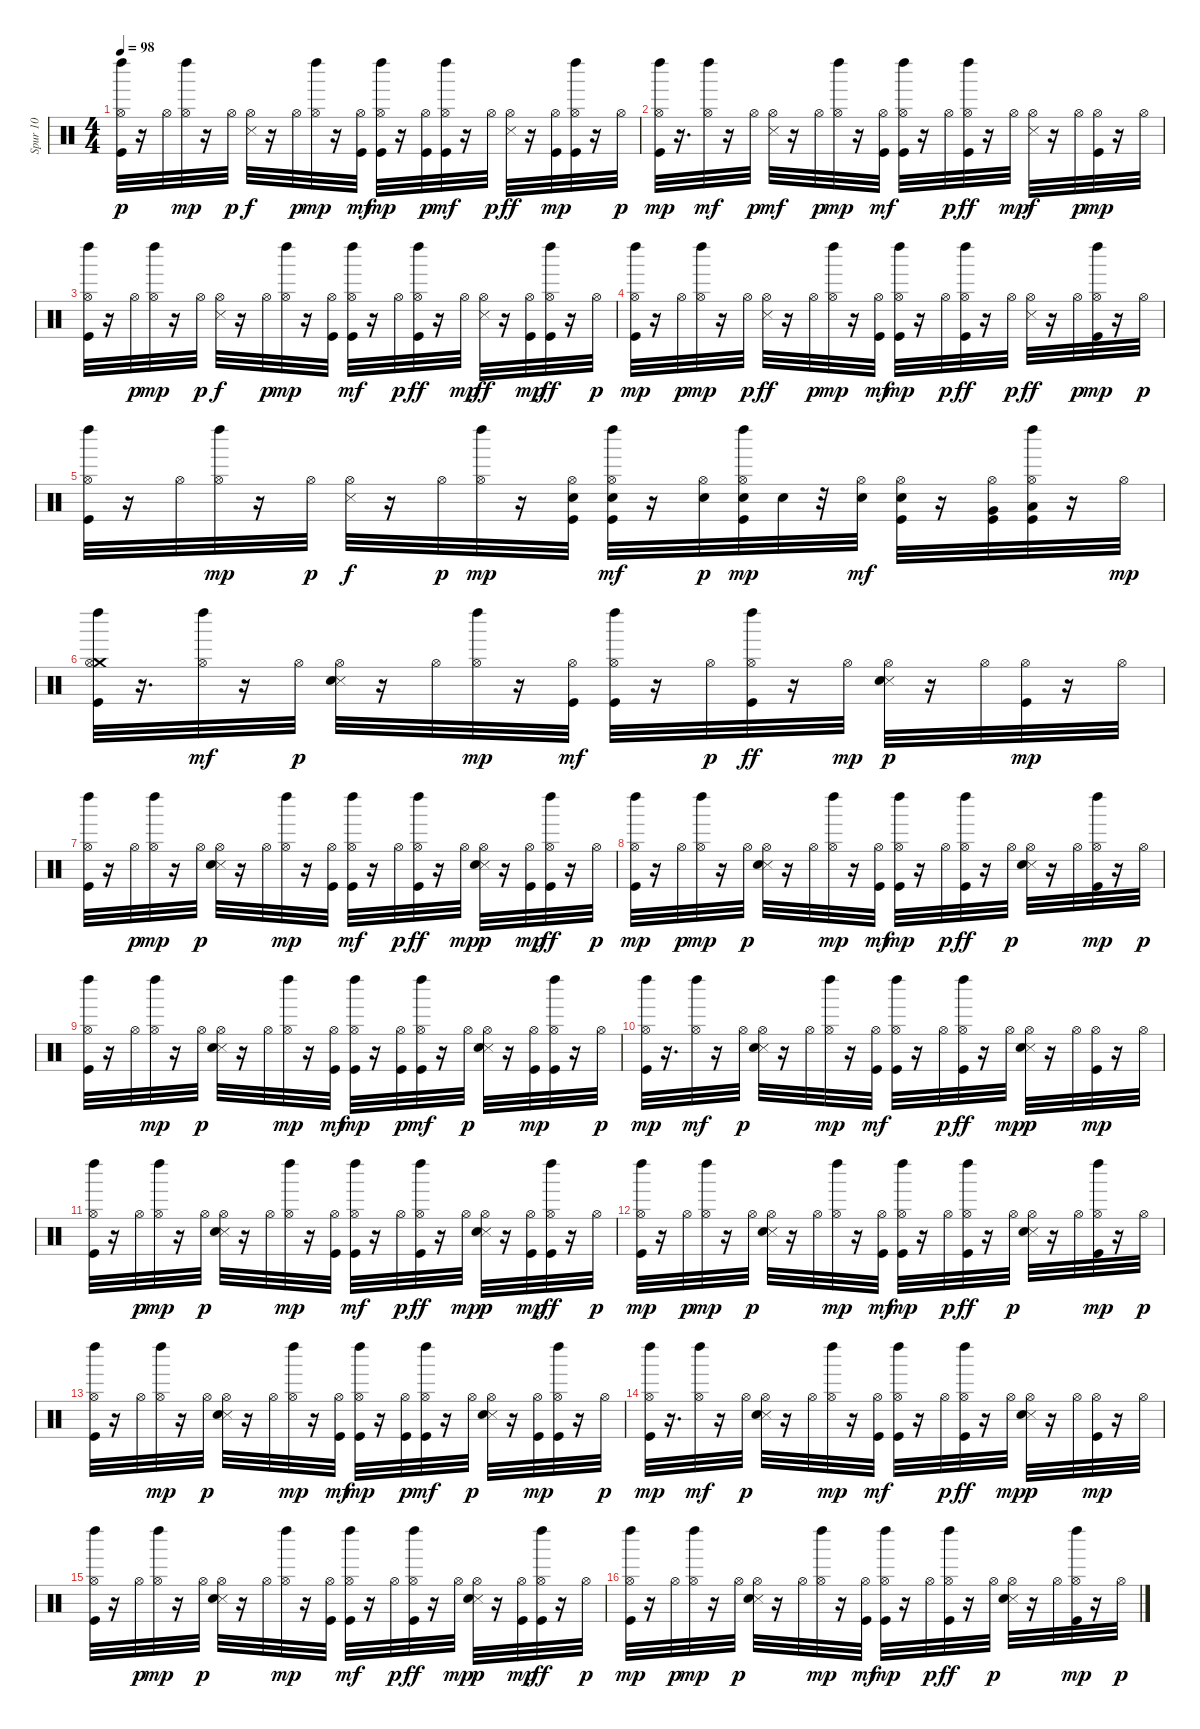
\track ("Spur 10" "Spur 10") {instrument percussion}
\staff {score}
\articulation defaults
\ts (4 4)
\tempo 98
\clef neutral
\ks c
("Hi-Hat (open)" "Kick (hit)" "Left Maraca (hit)").32{dy p} r.16 "Hi-Hat (open)".32 ("Hi-Hat (open)" "Left Maraca (hit)").32{dy mp} r.16 "Hi-Hat (open)".32{dy p} ("Hi-Hat (open)" "Snare (side stick) 3").32{dy f} r.16 "Hi-Hat (open)".32{dy p} ("Hi-Hat (open)" "Left Maraca (hit)").32{dy mp} r.16 ("Hi-Hat (open)" "Kick (hit)").32{dy mf} ("Hi-Hat (open)" "Kick (hit)" "Left Maraca (hit)").32{dy mp} r.16 ("Hi-Hat (open)" "Kick (hit)").32{dy p} ("Hi-Hat (open)" "Kick (hit)" "Left Maraca (hit)").32{dy mf} r.16 "Hi-Hat (open)".32{dy p} ("Hi-Hat (open)" "Snare (side stick) 3").32{dy ff} r.16 ("Hi-Hat (open)" "Kick (hit)").32{dy mp} ("Hi-Hat (open)" "Kick (hit)" "Left Maraca (hit)").32 r.16 "Hi-Hat (open)".32{dy p} |
("Hi-Hat (open)" "Kick (hit)" "Left Maraca (hit)").32{dy mp} r.16{d} ("Hi-Hat (open)" "Left Maraca (hit)").32{dy mf} r.16 "Hi-Hat (open)".32{dy p} ("Hi-Hat (open)" "Snare (side stick) 3").32{dy mf} r.16 "Hi-Hat (open)".32{dy p} ("Hi-Hat (open)" "Left Maraca (hit)").32{dy mp} r.16 ("Hi-Hat (open)" "Kick (hit)").32{dy mf} ("Hi-Hat (open)" "Kick (hit)" "Left Maraca (hit)").32 r.16 "Hi-Hat (open)".32{dy p} ("Hi-Hat (open)" "Kick (hit)" "Left Maraca (hit)").32{dy ff} r.16 "Hi-Hat (open)".32{dy mp} ("Hi-Hat (open)" "Snare (side stick) 3").32{dy f} r.16 "Hi-Hat (open)".32{dy p} ("Hi-Hat (open)" "Kick (hit)").32{dy mp} r.16 "Hi-Hat (open)".32 |
("Hi-Hat (open)" "Kick (hit)" "Left Maraca (hit)").32 r.16 "Hi-Hat (open)".32{dy p} ("Hi-Hat (open)" "Left Maraca (hit)").32{dy mp} r.16 "Hi-Hat (open)".32{dy p} ("Hi-Hat (open)" "Snare (side stick) 3").32{dy f} r.16 "Hi-Hat (open)".32{dy p} ("Hi-Hat (open)" "Left Maraca (hit)").32{dy mp} r.16 ("Hi-Hat (open)" "Kick (hit)").32 ("Hi-Hat (open)" "Kick (hit)" "Left Maraca (hit)").32{dy mf} r.16 "Hi-Hat (open)".32{dy p} ("Hi-Hat (open)" "Kick (hit)" "Left Maraca (hit)").32{dy ff} r.16 "Hi-Hat (open)".32{dy mp} ("Hi-Hat (open)" "Snare (side stick) 3").32{dy ff} r.16 ("Hi-Hat (open)" "Kick (hit)").32{dy mp} ("Hi-Hat (open)" "Kick (hit)" "Left Maraca (hit)").32{dy ff} r.16 "Hi-Hat (open)".32{dy p} |
("Hi-Hat (open)" "Kick (hit)" "Left Maraca (hit)").32{dy mp} r.16 "Hi-Hat (open)".32{dy p} ("Hi-Hat (open)" "Left Maraca (hit)").32{dy mp} r.16 "Hi-Hat (open)".32{dy p} ("Hi-Hat (open)" "Snare (side stick) 3").32{dy ff} r.16 "Hi-Hat (open)".32{dy p} ("Hi-Hat (open)" "Left Maraca (hit)").32{dy mp} r.16 ("Hi-Hat (open)" "Kick (hit)").32{dy mf} ("Hi-Hat (open)" "Kick (hit)" "Left Maraca (hit)").32{dy mp} r.16 "Hi-Hat (open)".32{dy p} ("Hi-Hat (open)" "Kick (hit)" "Left Maraca (hit)").32{dy ff} r.16 "Hi-Hat (open)".32{dy p} ("Hi-Hat (open)" "Snare (side stick) 3").32{dy ff} r.16 "Hi-Hat (open)".32{dy p} ("Hi-Hat (open)" "Kick (hit)" "Left Maraca (hit)").32{dy mp} r.16 "Hi-Hat (open)".32{dy p} |
("Hi-Hat (open)" "Kick (hit)" "Left Maraca (hit)").32 r.16 "Hi-Hat (open)".32 ("Hi-Hat (open)" "Left Maraca (hit)").32{dy mp} r.16 "Hi-Hat (open)".32{dy p} ("Hi-Hat (open)" "Snare (side stick) 3").32{dy f} r.16 "Hi-Hat (open)".32{dy p} ("Hi-Hat (open)" "Left Maraca (hit)").32{dy mp} r.16 ("Hi-Hat (open)" "Kick (hit)" "Snare (hit) 2").32 ("Hi-Hat (open)" "Kick (hit)" "Left Maraca (hit)" "Snare (hit) 2").32{dy mf} r.16 ("Hi-Hat (open)" "Snare (hit) 2").32{dy p} ("Hi-Hat (open)" "Kick (hit)" "Left Maraca (hit)" "Snare (hit) 2").32{dy mp} "Snare (hit) 2".32 r.32 ("Hi-Hat (open)" "Snare (hit) 2").32{dy mf} ("Hi-Hat (open)" "Kick (hit)" "Snare (hit) 2").32 r.16 ("Hi-Hat (open)" "Kick (hit)" "Very Low Tom (hit)").32 ("Hi-Hat (open)" "Kick (hit)" "Left Maraca (hit)" "Low Floor Tom (hit)").32 r.16 "Hi-Hat (open)".32{dy mp} |
("Crash medium (hit)" "Hi-Hat (open)" "Kick (hit)" "Left Maraca (hit)").32 r.16{d} ("Hi-Hat (open)" "Left Maraca (hit)").32{dy mf} r.16 "Hi-Hat (open)".32{dy p} ("Hi-Hat (open)" "Snare (side stick) 3" "Electric Snare (hit)").32 r.16 "Hi-Hat (open)".32 ("Hi-Hat (open)" "Left Maraca (hit)").32{dy mp} r.16 ("Hi-Hat (open)" "Kick (hit)").32{dy mf} ("Hi-Hat (open)" "Kick (hit)" "Left Maraca (hit)").32 r.16 "Hi-Hat (open)".32{dy p} ("Hi-Hat (open)" "Kick (hit)" "Left Maraca (hit)").32{dy ff} r.16 "Hi-Hat (open)".32{dy mp} ("Hi-Hat (open)" "Snare (side stick) 3" "Electric Snare (hit)").32{dy p} r.16 "Hi-Hat (open)".32 ("Hi-Hat (open)" "Kick (hit)").32{dy mp} r.16 "Hi-Hat (open)".32 |
("Hi-Hat (open)" "Kick (hit)" "Left Maraca (hit)").32 r.16 "Hi-Hat (open)".32{dy p} ("Hi-Hat (open)" "Left Maraca (hit)").32{dy mp} r.16 "Hi-Hat (open)".32{dy p} ("Hi-Hat (open)" "Snare (side stick) 3" "Electric Snare (hit)").32 r.16 "Hi-Hat (open)".32 ("Hi-Hat (open)" "Left Maraca (hit)").32{dy mp} r.16 ("Hi-Hat (open)" "Kick (hit)").32 ("Hi-Hat (open)" "Kick (hit)" "Left Maraca (hit)").32{dy mf} r.16 "Hi-Hat (open)".32{dy p} ("Hi-Hat (open)" "Kick (hit)" "Left Maraca (hit)").32{dy ff} r.16 "Hi-Hat (open)".32{dy mp} ("Hi-Hat (open)" "Snare (side stick) 3" "Electric Snare (hit)").32{dy p} r.16 ("Hi-Hat (open)" "Kick (hit)").32{dy mp} ("Hi-Hat (open)" "Kick (hit)" "Left Maraca (hit)").32{dy ff} r.16 "Hi-Hat (open)".32{dy p} |
("Hi-Hat (open)" "Kick (hit)" "Left Maraca (hit)").32{dy mp} r.16 "Hi-Hat (open)".32{dy p} ("Hi-Hat (open)" "Left Maraca (hit)").32{dy mp} r.16 "Hi-Hat (open)".32{dy p} ("Hi-Hat (open)" "Snare (side stick) 3" "Electric Snare (hit)").32 r.16 "Hi-Hat (open)".32 ("Hi-Hat (open)" "Left Maraca (hit)").32{dy mp} r.16 ("Hi-Hat (open)" "Kick (hit)").32{dy mf} ("Hi-Hat (open)" "Kick (hit)" "Left Maraca (hit)").32{dy mp} r.16 "Hi-Hat (open)".32{dy p} ("Hi-Hat (open)" "Kick (hit)" "Left Maraca (hit)").32{dy ff} r.16 "Hi-Hat (open)".32{dy p} ("Hi-Hat (open)" "Snare (side stick) 3" "Electric Snare (hit)").32 r.16 "Hi-Hat (open)".32 ("Hi-Hat (open)" "Kick (hit)" "Left Maraca (hit)").32{dy mp} r.16 "Hi-Hat (open)".32{dy p} |
("Hi-Hat (open)" "Kick (hit)" "Left Maraca (hit)").32 r.16 "Hi-Hat (open)".32 ("Hi-Hat (open)" "Left Maraca (hit)").32{dy mp} r.16 "Hi-Hat (open)".32{dy p} ("Hi-Hat (open)" "Snare (side stick) 3" "Electric Snare (hit)").32 r.16 "Hi-Hat (open)".32 ("Hi-Hat (open)" "Left Maraca (hit)").32{dy mp} r.16 ("Hi-Hat (open)" "Kick (hit)").32{dy mf} ("Hi-Hat (open)" "Kick (hit)" "Left Maraca (hit)").32{dy mp} r.16 ("Hi-Hat (open)" "Kick (hit)").32{dy p} ("Hi-Hat (open)" "Kick (hit)" "Left Maraca (hit)").32{dy mf} r.16 "Hi-Hat (open)".32{dy p} ("Hi-Hat (open)" "Snare (side stick) 3" "Electric Snare (hit)").32 r.16 ("Hi-Hat (open)" "Kick (hit)").32{dy mp} ("Hi-Hat (open)" "Kick (hit)" "Left Maraca (hit)").32 r.16 "Hi-Hat (open)".32{dy p} |
("Hi-Hat (open)" "Kick (hit)" "Left Maraca (hit)").32{dy mp} r.16{d} ("Hi-Hat (open)" "Left Maraca (hit)").32{dy mf} r.16 "Hi-Hat (open)".32{dy p} ("Hi-Hat (open)" "Snare (side stick) 3" "Electric Snare (hit)").32 r.16 "Hi-Hat (open)".32 ("Hi-Hat (open)" "Left Maraca (hit)").32{dy mp} r.16 ("Hi-Hat (open)" "Kick (hit)").32{dy mf} ("Hi-Hat (open)" "Kick (hit)" "Left Maraca (hit)").32 r.16 "Hi-Hat (open)".32{dy p} ("Hi-Hat (open)" "Kick (hit)" "Left Maraca (hit)").32{dy ff} r.16 "Hi-Hat (open)".32{dy mp} ("Hi-Hat (open)" "Snare (side stick) 3" "Electric Snare (hit)").32{dy p} r.16 "Hi-Hat (open)".32 ("Hi-Hat (open)" "Kick (hit)").32{dy mp} r.16 "Hi-Hat (open)".32 |
("Hi-Hat (open)" "Kick (hit)" "Left Maraca (hit)").32 r.16 "Hi-Hat (open)".32{dy p} ("Hi-Hat (open)" "Left Maraca (hit)").32{dy mp} r.16 "Hi-Hat (open)".32{dy p} ("Hi-Hat (open)" "Snare (side stick) 3" "Electric Snare (hit)").32 r.16 "Hi-Hat (open)".32 ("Hi-Hat (open)" "Left Maraca (hit)").32{dy mp} r.16 ("Hi-Hat (open)" "Kick (hit)").32 ("Hi-Hat (open)" "Kick (hit)" "Left Maraca (hit)").32{dy mf} r.16 "Hi-Hat (open)".32{dy p} ("Hi-Hat (open)" "Kick (hit)" "Left Maraca (hit)").32{dy ff} r.16 "Hi-Hat (open)".32{dy mp} ("Hi-Hat (open)" "Snare (side stick) 3" "Electric Snare (hit)").32{dy p} r.16 ("Hi-Hat (open)" "Kick (hit)").32{dy mp} ("Hi-Hat (open)" "Kick (hit)" "Left Maraca (hit)").32{dy ff} r.16 "Hi-Hat (open)".32{dy p} |
("Hi-Hat (open)" "Kick (hit)" "Left Maraca (hit)").32{dy mp} r.16 "Hi-Hat (open)".32{dy p} ("Hi-Hat (open)" "Left Maraca (hit)").32{dy mp} r.16 "Hi-Hat (open)".32{dy p} ("Hi-Hat (open)" "Snare (side stick) 3" "Electric Snare (hit)").32 r.16 "Hi-Hat (open)".32 ("Hi-Hat (open)" "Left Maraca (hit)").32{dy mp} r.16 ("Hi-Hat (open)" "Kick (hit)").32{dy mf} ("Hi-Hat (open)" "Kick (hit)" "Left Maraca (hit)").32{dy mp} r.16 "Hi-Hat (open)".32{dy p} ("Hi-Hat (open)" "Kick (hit)" "Left Maraca (hit)").32{dy ff} r.16 "Hi-Hat (open)".32{dy p} ("Hi-Hat (open)" "Snare (side stick) 3" "Electric Snare (hit)").32 r.16 "Hi-Hat (open)".32 ("Hi-Hat (open)" "Kick (hit)" "Left Maraca (hit)").32{dy mp} r.16 "Hi-Hat (open)".32{dy p} |
("Hi-Hat (open)" "Kick (hit)" "Left Maraca (hit)").32 r.16 "Hi-Hat (open)".32 ("Hi-Hat (open)" "Left Maraca (hit)").32{dy mp} r.16 "Hi-Hat (open)".32{dy p} ("Hi-Hat (open)" "Snare (side stick) 3" "Electric Snare (hit)").32 r.16 "Hi-Hat (open)".32 ("Hi-Hat (open)" "Left Maraca (hit)").32{dy mp} r.16 ("Hi-Hat (open)" "Kick (hit)").32{dy mf} ("Hi-Hat (open)" "Kick (hit)" "Left Maraca (hit)").32{dy mp} r.16 ("Hi-Hat (open)" "Kick (hit)").32{dy p} ("Hi-Hat (open)" "Kick (hit)" "Left Maraca (hit)").32{dy mf} r.16 "Hi-Hat (open)".32{dy p} ("Hi-Hat (open)" "Snare (side stick) 3" "Electric Snare (hit)").32 r.16 ("Hi-Hat (open)" "Kick (hit)").32{dy mp} ("Hi-Hat (open)" "Kick (hit)" "Left Maraca (hit)").32 r.16 "Hi-Hat (open)".32{dy p} |
("Hi-Hat (open)" "Kick (hit)" "Left Maraca (hit)").32{dy mp} r.16{d} ("Hi-Hat (open)" "Left Maraca (hit)").32{dy mf} r.16 "Hi-Hat (open)".32{dy p} ("Hi-Hat (open)" "Snare (side stick) 3" "Electric Snare (hit)").32 r.16 "Hi-Hat (open)".32 ("Hi-Hat (open)" "Left Maraca (hit)").32{dy mp} r.16 ("Hi-Hat (open)" "Kick (hit)").32{dy mf} ("Hi-Hat (open)" "Kick (hit)" "Left Maraca (hit)").32 r.16 "Hi-Hat (open)".32{dy p} ("Hi-Hat (open)" "Kick (hit)" "Left Maraca (hit)").32{dy ff} r.16 "Hi-Hat (open)".32{dy mp} ("Hi-Hat (open)" "Snare (side stick) 3" "Electric Snare (hit)").32{dy p} r.16 "Hi-Hat (open)".32 ("Hi-Hat (open)" "Kick (hit)").32{dy mp} r.16 "Hi-Hat (open)".32 |
("Hi-Hat (open)" "Kick (hit)" "Left Maraca (hit)").32 r.16 "Hi-Hat (open)".32{dy p} ("Hi-Hat (open)" "Left Maraca (hit)").32{dy mp} r.16 "Hi-Hat (open)".32{dy p} ("Hi-Hat (open)" "Snare (side stick) 3" "Electric Snare (hit)").32 r.16 "Hi-Hat (open)".32 ("Hi-Hat (open)" "Left Maraca (hit)").32{dy mp} r.16 ("Hi-Hat (open)" "Kick (hit)").32 ("Hi-Hat (open)" "Kick (hit)" "Left Maraca (hit)").32{dy mf} r.16 "Hi-Hat (open)".32{dy p} ("Hi-Hat (open)" "Kick (hit)" "Left Maraca (hit)").32{dy ff} r.16 "Hi-Hat (open)".32{dy mp} ("Hi-Hat (open)" "Snare (side stick) 3" "Electric Snare (hit)").32{dy p} r.16 ("Hi-Hat (open)" "Kick (hit)").32{dy mp} ("Hi-Hat (open)" "Kick (hit)" "Left Maraca (hit)").32{dy ff} r.16 "Hi-Hat (open)".32{dy p} |
("Hi-Hat (open)" "Kick (hit)" "Left Maraca (hit)").32{dy mp} r.16 "Hi-Hat (open)".32{dy p} ("Hi-Hat (open)" "Left Maraca (hit)").32{dy mp} r.16 "Hi-Hat (open)".32{dy p} ("Hi-Hat (open)" "Snare (side stick) 3" "Electric Snare (hit)").32 r.16 "Hi-Hat (open)".32 ("Hi-Hat (open)" "Left Maraca (hit)").32{dy mp} r.16 ("Hi-Hat (open)" "Kick (hit)").32{dy mf} ("Hi-Hat (open)" "Kick (hit)" "Left Maraca (hit)").32{dy mp} r.16 "Hi-Hat (open)".32{dy p} ("Hi-Hat (open)" "Kick (hit)" "Left Maraca (hit)").32{dy ff} r.16 "Hi-Hat (open)".32{dy p} ("Hi-Hat (open)" "Snare (side stick) 3" "Electric Snare (hit)").32 r.16 "Hi-Hat (open)".32 ("Hi-Hat (open)" "Kick (hit)" "Left Maraca (hit)").32{dy mp} r.16 "Hi-Hat (open)".32{dy p}
